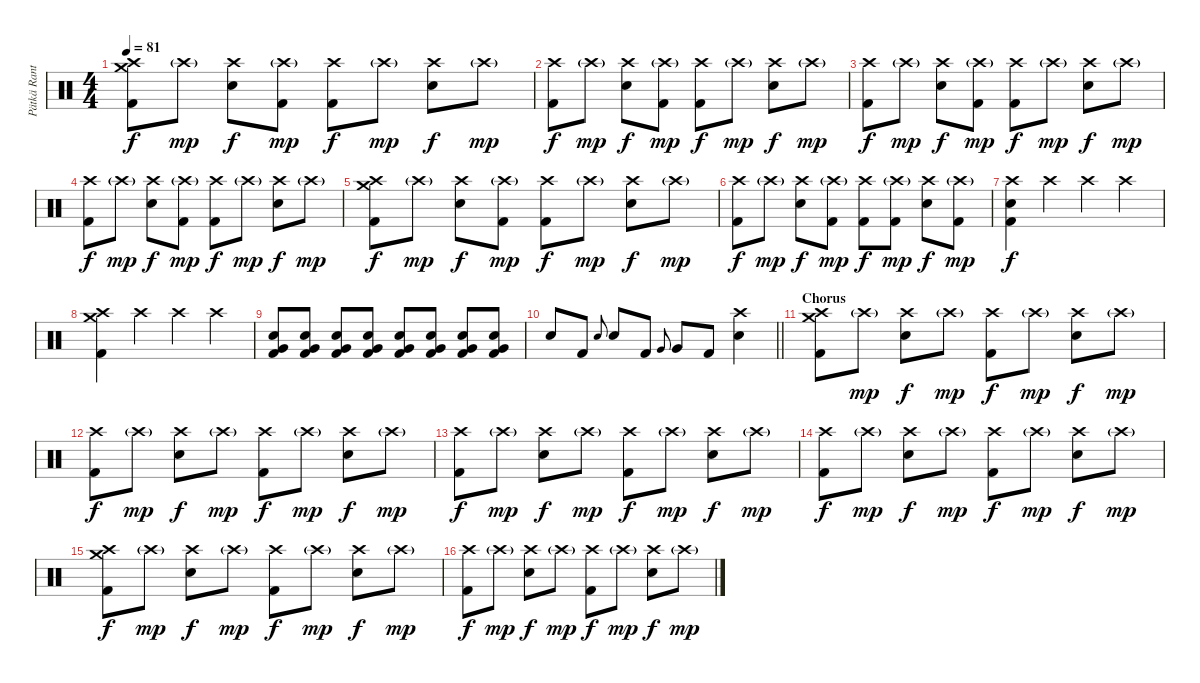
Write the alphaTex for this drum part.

\track ("Pätkä Rantala (Drums)" "Pätkä Rant") {instrument percussion}
\staff {score}
\articulation defaults
\ts (4 4)
\tempo 81
\clef neutral
\ks c
("Crash medium (hit)" "Crash high (hit)" "Kick (hit) 2").8{dy f} "Crash high (hit)"{g}.8{dy mp} ("Crash high (hit)" "Snare (hit) 2").8{dy f} ("Crash high (hit)"{g} "Kick (hit) 2").8{dy mp} ("Crash high (hit)" "Kick (hit) 2").8{dy f} "Crash high (hit)"{g}.8{dy mp} ("Crash high (hit)" "Snare (hit) 2").8{dy f} "Crash high (hit)"{g}.8{dy mp} |
("Crash high (hit)" "Kick (hit) 2").8{dy f} "Crash high (hit)"{g}.8{dy mp} ("Crash high (hit)" "Snare (hit) 2").8{dy f} ("Crash high (hit)"{g} "Kick (hit) 2").8{dy mp} ("Crash high (hit)" "Kick (hit) 2").8{dy f} "Crash high (hit)"{g}.8{dy mp} ("Crash high (hit)" "Snare (hit) 2").8{dy f} "Crash high (hit)"{g}.8{dy mp} |
("Crash high (hit)" "Kick (hit) 2").8{dy f} "Crash high (hit)"{g}.8{dy mp} ("Crash high (hit)" "Snare (hit) 2").8{dy f} ("Crash high (hit)"{g} "Kick (hit) 2").8{dy mp} ("Crash high (hit)" "Kick (hit) 2").8{dy f} "Crash high (hit)"{g}.8{dy mp} ("Crash high (hit)" "Snare (hit) 2").8{dy f} "Crash high (hit)"{g}.8{dy mp} |
("Crash high (hit)" "Kick (hit) 2").8{dy f} "Crash high (hit)"{g}.8{dy mp} ("Crash high (hit)" "Snare (hit) 2").8{dy f} ("Crash high (hit)"{g} "Kick (hit) 2").8{dy mp} ("Crash high (hit)" "Kick (hit) 2").8{dy f} "Crash high (hit)"{g}.8{dy mp} ("Crash high (hit)" "Snare (hit) 2").8{dy f} "Crash high (hit)"{g}.8{dy mp} |
("Crash medium (hit)" "Crash high (hit)" "Kick (hit) 2").8{dy f} "Crash high (hit)"{g}.8{dy mp} ("Crash high (hit)" "Snare (hit) 2").8{dy f} ("Crash high (hit)"{g} "Kick (hit) 2").8{dy mp} ("Crash high (hit)" "Kick (hit) 2").8{dy f} "Crash high (hit)"{g}.8{dy mp} ("Crash high (hit)" "Snare (hit) 2").8{dy f} "Crash high (hit)"{g}.8{dy mp} |
("Crash high (hit)" "Kick (hit) 2").8{dy f} "Crash high (hit)"{g}.8{dy mp} ("Crash high (hit)" "Snare (hit) 2").8{dy f} ("Crash high (hit)"{g} "Kick (hit) 2").8{dy mp} ("Crash high (hit)" "Kick (hit) 2").8{dy f} ("Crash high (hit)"{g} "Kick (hit) 2").8{dy mp} ("Crash high (hit)" "Snare (hit) 2").8{dy f} ("Crash high (hit)"{g} "Kick (hit) 2").8{dy mp} |
("Crash high (hit)" "Snare (hit) 2" "Kick (hit) 2").4{dy f} "Crash high (hit)".4 "Crash high (hit)".4 "Crash high (hit)".4 |
("Crash medium (hit)" "Crash high (hit)" "Kick (hit) 2").4 "Crash high (hit)".4 "Crash high (hit)".4 "Crash high (hit)".4 |
("Very Low Tom (hit)" "Snare (hit) 2" "Kick (hit) 2").8 ("Very Low Tom (hit)" "Snare (hit) 2" "Kick (hit) 2").8 ("Very Low Tom (hit)" "Snare (hit) 2" "Kick (hit) 2").8 ("Very Low Tom (hit)" "Snare (hit) 2" "Kick (hit) 2").8 ("Very Low Tom (hit)" "Snare (hit) 2" "Kick (hit) 2").8 ("Very Low Tom (hit)" "Snare (hit) 2" "Kick (hit) 2").8 ("Very Low Tom (hit)" "Snare (hit) 2" "Kick (hit) 2").8 ("Very Low Tom (hit)" "Snare (hit) 2" "Kick (hit) 2").8 |
\barLineRight lightlight "Snare (hit) 2".8 "Kick (hit) 2".8 "Snare (hit) 2".8{gr onbeat} "Snare (hit) 2".8 "Kick (hit) 2".8 "Very Low Tom (hit)".8{gr onbeat} "Very Low Tom (hit)".8 "Kick (hit) 2".8
("Crash high (hit)" "Snare (hit) 2").4 |
\section ("" "Chorus")
("Crash medium (hit)" "Crash high (hit)" "Kick (hit) 2").8 "Crash high (hit)"{g}.8{dy mp} ("Crash high (hit)" "Snare (hit) 2").8{dy f} "Crash high (hit)"{g}.8{dy mp} ("Crash high (hit)" "Kick (hit) 2").8{dy f} "Crash high (hit)"{g}.8{dy mp} ("Crash high (hit)" "Snare (hit) 2").8{dy f} "Crash high (hit)"{g}.8{dy mp} |
("Crash high (hit)" "Kick (hit) 2").8{dy f} "Crash high (hit)"{g}.8{dy mp} ("Crash high (hit)" "Snare (hit) 2").8{dy f} "Crash high (hit)"{g}.8{dy mp} ("Crash high (hit)" "Kick (hit) 2").8{dy f} "Crash high (hit)"{g}.8{dy mp} ("Crash high (hit)" "Snare (hit) 2").8{dy f} "Crash high (hit)"{g}.8{dy mp} |
("Crash high (hit)" "Kick (hit) 2").8{dy f} "Crash high (hit)"{g}.8{dy mp} ("Crash high (hit)" "Snare (hit) 2").8{dy f} "Crash high (hit)"{g}.8{dy mp} ("Crash high (hit)" "Kick (hit) 2").8{dy f} "Crash high (hit)"{g}.8{dy mp} ("Crash high (hit)" "Snare (hit) 2").8{dy f} "Crash high (hit)"{g}.8{dy mp} |
("Crash high (hit)" "Kick (hit) 2").8{dy f} "Crash high (hit)"{g}.8{dy mp} ("Crash high (hit)" "Snare (hit) 2").8{dy f} "Crash high (hit)"{g}.8{dy mp} ("Crash high (hit)" "Kick (hit) 2").8{dy f} "Crash high (hit)"{g}.8{dy mp} ("Crash high (hit)" "Snare (hit) 2").8{dy f} "Crash high (hit)"{g}.8{dy mp} |
("Crash medium (hit)" "Crash high (hit)" "Kick (hit) 2").8{dy f} "Crash high (hit)"{g}.8{dy mp} ("Crash high (hit)" "Snare (hit) 2").8{dy f} "Crash high (hit)"{g}.8{dy mp} ("Crash high (hit)" "Kick (hit) 2").8{dy f} "Crash high (hit)"{g}.8{dy mp} ("Crash high (hit)" "Snare (hit) 2").8{dy f} "Crash high (hit)"{g}.8{dy mp} |
("Crash high (hit)" "Kick (hit) 2").8{dy f} "Crash high (hit)"{g}.8{dy mp} ("Crash high (hit)" "Snare (hit) 2").8{dy f} "Crash high (hit)"{g}.8{dy mp} ("Crash high (hit)" "Kick (hit) 2").8{dy f} "Crash high (hit)"{g}.8{dy mp} ("Crash high (hit)" "Snare (hit) 2").8{dy f} "Crash high (hit)"{g}.8{dy mp}
